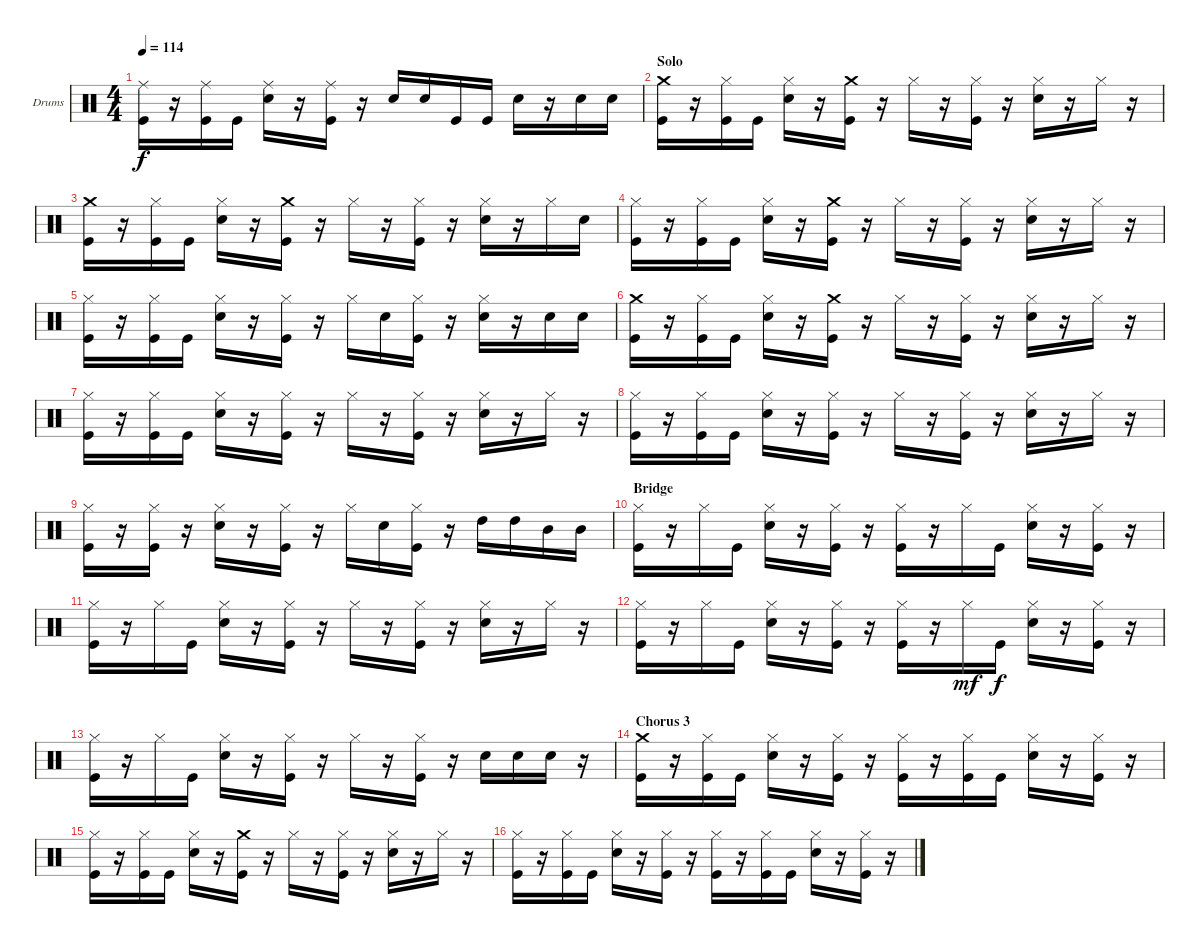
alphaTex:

\bracketExtendMode groupsimilarinstruments
\firstSystemTrackNameOrientation horizontal
\otherSystemsTrackNameOrientation horizontal
\track ("Drums" "Drums") {instrument percussion}
\staff {score}
\articulation defaults
\ts (4 4)
\tempo 114
\clef neutral
\ks c
("Ride (middle)" "Kick (hit)").16{dy f} r.16 ("Ride (middle)" "Kick (hit)").16 "Kick (hit)".16 ("Ride (middle)" "Snare (hit) 2").16 r.16 ("Ride (middle)" "Kick (hit)").16 r.16 "Snare (hit) 2".16 "Snare (hit) 2".16 "Kick (hit)".16 "Kick (hit)".16 "Snare (hit) 2".16 r.16 "Snare (hit) 2".16 "Snare (hit) 2".16 |
\section ("" "Solo")
("Crash medium (hit)" "Kick (hit)").16 r.16 ("Hi-Hat (closed)" "Kick (hit)").16 "Kick (hit)".16 ("Hi-Hat (closed)" "Snare (hit) 2").16 r.16 ("Crash medium (hit)" "Kick (hit)").16 r.16 "Hi-Hat (closed)".16 r.16 ("Hi-Hat (closed)" "Kick (hit)").16 r.16 ("Hi-Hat (closed)" "Snare (hit) 2").16 r.16 "Hi-Hat (closed)".16 r.16 |
("Crash medium (hit)" "Kick (hit)").16 r.16 ("Hi-Hat (closed)" "Kick (hit)").16 "Kick (hit)".16 ("Hi-Hat (closed)" "Snare (hit) 2").16 r.16 ("Crash medium (hit)" "Kick (hit)").16 r.16 "Hi-Hat (closed)".16 r.16 ("Hi-Hat (closed)" "Kick (hit)").16 r.16 ("Hi-Hat (closed)" "Snare (hit) 2").16 r.16 "Hi-Hat (closed)".16 "Snare (hit) 2".16 |
("Hi-Hat (closed)" "Kick (hit)").16 r.16 ("Hi-Hat (closed)" "Kick (hit)").16 "Kick (hit)".16 ("Hi-Hat (closed)" "Snare (hit) 2").16 r.16 ("Crash medium (hit)" "Kick (hit)").16 r.16 "Hi-Hat (closed)".16 r.16 ("Hi-Hat (closed)" "Kick (hit)").16 r.16 ("Hi-Hat (closed)" "Snare (hit) 2").16 r.16 "Hi-Hat (closed)".16 r.16 |
("Hi-Hat (closed)" "Kick (hit)").16 r.16 ("Hi-Hat (closed)" "Kick (hit)").16 "Kick (hit)".16 ("Hi-Hat (closed)" "Snare (hit) 2").16 r.16 ("Hi-Hat (closed)" "Kick (hit)").16 r.16 "Hi-Hat (closed)".16 "Snare (hit) 2".16 ("Hi-Hat (closed)" "Kick (hit)").16 r.16 ("Hi-Hat (closed)" "Snare (hit) 2").16 r.16 "Snare (hit) 2".16 "Snare (hit) 2".16 |
("Crash medium (hit)" "Kick (hit)").16 r.16 ("Hi-Hat (closed)" "Kick (hit)").16 "Kick (hit)".16 ("Hi-Hat (closed)" "Snare (hit) 2").16 r.16 ("Crash medium (hit)" "Kick (hit)").16 r.16 "Hi-Hat (closed)".16 r.16 ("Hi-Hat (closed)" "Kick (hit)").16 r.16 ("Hi-Hat (closed)" "Snare (hit) 2").16 r.16 "Hi-Hat (closed)".16 r.16 |
("Hi-Hat (closed)" "Kick (hit)").16 r.16 ("Hi-Hat (closed)" "Kick (hit)").16 "Kick (hit)".16 ("Hi-Hat (closed)" "Snare (hit) 2").16 r.16 ("Hi-Hat (closed)" "Kick (hit)").16 r.16 "Hi-Hat (closed)".16 r.16 ("Hi-Hat (closed)" "Kick (hit)").16 r.16 ("Hi-Hat (closed)" "Snare (hit) 2").16 r.16 "Hi-Hat (closed)".16 r.16 |
("Hi-Hat (closed)" "Kick (hit)").16 r.16 ("Hi-Hat (closed)" "Kick (hit)").16 "Kick (hit)".16 ("Hi-Hat (closed)" "Snare (hit) 2").16 r.16 ("Hi-Hat (closed)" "Kick (hit)").16 r.16 "Hi-Hat (closed)".16 r.16 ("Hi-Hat (closed)" "Kick (hit)").16 r.16 ("Hi-Hat (closed)" "Snare (hit) 2").16 r.16 "Hi-Hat (closed)".16 r.16 |
("Hi-Hat (closed)" "Kick (hit)").16 r.16 ("Hi-Hat (closed)" "Kick (hit)").16 r.16 ("Hi-Hat (closed)" "Snare (hit) 2").16 r.16 ("Hi-Hat (closed)" "Kick (hit)").16 r.16 "Hi-Hat (closed)".16 "Snare (hit) 2".16 ("Hi-Hat (closed)" "Kick (hit)").16 r.16 "High Tom (hit)".16 "High Tom (hit)".16 "Mid Tom (hit)".16 "Mid Tom (hit)".16 |
\section ("" "Bridge")
("Hi-Hat (closed)" "Kick (hit)").16 r.16 "Hi-Hat (closed)".16 "Kick (hit)".16 ("Hi-Hat (closed)" "Snare (hit) 2").16 r.16 ("Hi-Hat (closed)" "Kick (hit)").16 r.16 ("Hi-Hat (closed)" "Kick (hit)").16 r.16 "Hi-Hat (closed)".16 "Kick (hit)".16 ("Hi-Hat (closed)" "Snare (hit) 2").16 r.16 ("Hi-Hat (closed)" "Kick (hit)").16 r.16 |
("Hi-Hat (closed)" "Kick (hit)").16 r.16 "Hi-Hat (closed)".16 "Kick (hit)".16 ("Hi-Hat (closed)" "Snare (hit) 2").16 r.16 ("Hi-Hat (closed)" "Kick (hit)").16 r.16 "Hi-Hat (closed)".16 r.16 ("Hi-Hat (closed)" "Kick (hit)").16 r.16 ("Hi-Hat (closed)" "Snare (hit) 2").16 r.16 "Hi-Hat (closed)".16 r.16 |
("Hi-Hat (closed)" "Kick (hit)").16 r.16 "Hi-Hat (closed)".16 "Kick (hit)".16 ("Hi-Hat (closed)" "Snare (hit) 2").16 r.16 ("Hi-Hat (closed)" "Kick (hit)").16 r.16 ("Hi-Hat (closed)" "Kick (hit)").16 r.16 "Hi-Hat (closed)".16{dy mf} "Kick (hit)".16{dy f} ("Hi-Hat (closed)" "Snare (hit) 2").16 r.16 ("Hi-Hat (closed)" "Kick (hit)").16 r.16 |
("Hi-Hat (closed)" "Kick (hit)").16 r.16 "Hi-Hat (closed)".16 "Kick (hit)".16 ("Hi-Hat (closed)" "Snare (hit) 2").16 r.16 ("Hi-Hat (closed)" "Kick (hit)").16 r.16 "Hi-Hat (closed)".16 r.16 ("Hi-Hat (closed)" "Kick (hit)").16 r.16 "Snare (hit) 2".16 "Snare (hit) 2".16 "Snare (hit) 2".16 r.16 |
\section ("" "Chorus 3")
("Crash medium (hit)" "Kick (hit)").16 r.16 ("Hi-Hat (closed)" "Kick (hit)").16 "Kick (hit)".16 ("Hi-Hat (closed)" "Snare (hit) 2").16 r.16 ("Hi-Hat (closed)" "Kick (hit)").16 r.16 ("Hi-Hat (closed)" "Kick (hit)").16 r.16 ("Hi-Hat (closed)" "Kick (hit)").16 "Kick (hit)".16 ("Hi-Hat (closed)" "Snare (hit) 2").16 r.16 ("Hi-Hat (closed)" "Kick (hit)").16 r.16 |
("Hi-Hat (closed)" "Kick (hit)").16 r.16 ("Hi-Hat (closed)" "Kick (hit)").16 "Kick (hit)".16 ("Hi-Hat (closed)" "Snare (hit) 2").16 r.16 ("Crash medium (hit)" "Kick (hit)").16 r.16 "Hi-Hat (closed)".16 r.16 ("Hi-Hat (closed)" "Kick (hit)").16 r.16 ("Hi-Hat (closed)" "Snare (hit) 2").16 r.16 "Hi-Hat (closed)".16 r.16 |
("Hi-Hat (closed)" "Kick (hit)").16 r.16 ("Hi-Hat (closed)" "Kick (hit)").16 "Kick (hit)".16 ("Hi-Hat (closed)" "Snare (hit) 2").16 r.16 ("Hi-Hat (closed)" "Kick (hit)").16 r.16 ("Hi-Hat (closed)" "Kick (hit)").16 r.16 ("Hi-Hat (closed)" "Kick (hit)").16 "Kick (hit)".16 ("Hi-Hat (closed)" "Snare (hit) 2").16 r.16 ("Hi-Hat (closed)" "Kick (hit)").16 r.16
